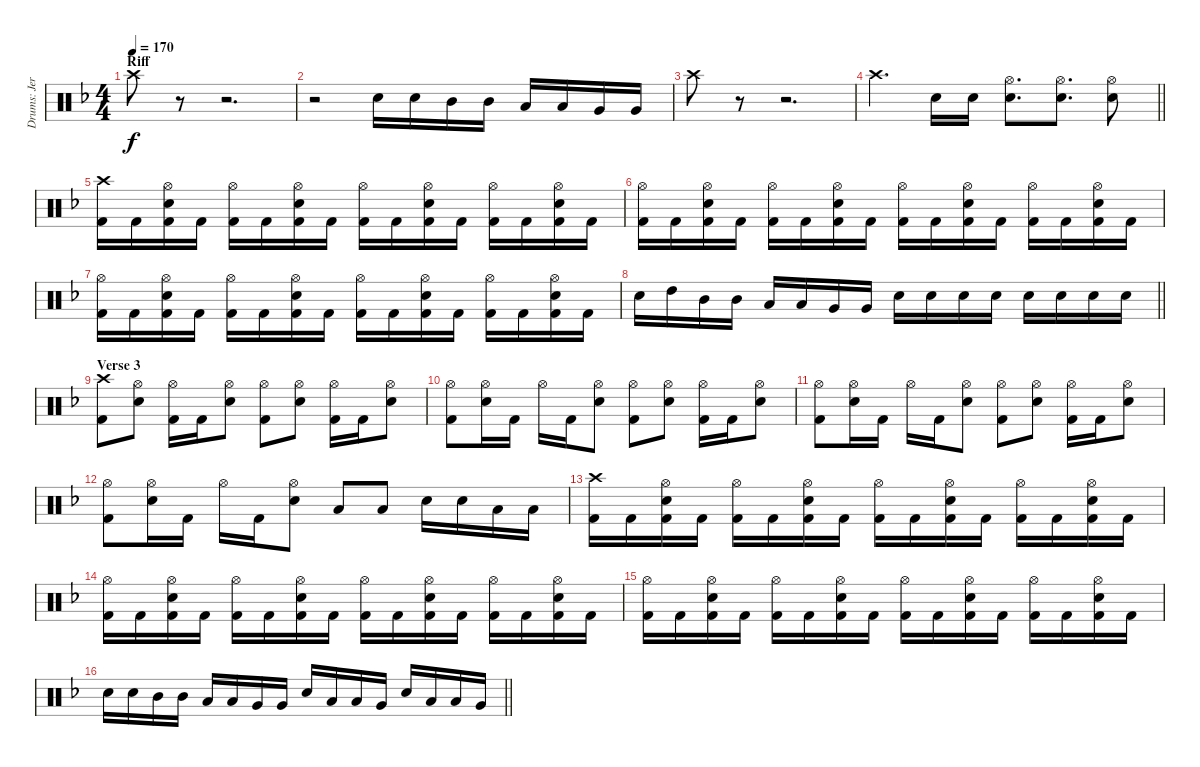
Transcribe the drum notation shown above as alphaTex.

\track ("Drums: Jere Luokkamäki" "Drums: Jer") {instrument percussion}
\staff {score}
\articulation defaults
\ts (4 4)
\section ("" "Riff")
\tempo 170
\clef neutral
\ks dminor "Crash high (hit)".8{dy f}
r.8 r.2{d} |
r.2 "Electric Snare (hit)".16 "Electric Snare (hit)".16 "Mid Tom (hit)".16 "Mid Tom (hit)".16 "Low Tom (hit)".16 "Low Tom (hit)".16 "Very Low Tom (hit)".16 "Very Low Tom (hit)".16 |
"Crash high (hit)".8 r.8 r.2{d} |
\barLineRight lightlight "Crash high (hit)".4{d} "Electric Snare (hit)".16 "Electric Snare (hit)".16
("Hi-Hat (open)" "Electric Snare (hit)").8{d} ("Hi-Hat (open)" "Electric Snare (hit)").8{d} ("Hi-Hat (open)" "Electric Snare (hit)").8 |
("Crash high (hit)" "Kick (hit) 2").16 "Kick (hit) 2".16 ("Hi-Hat (open)" "Electric Snare (hit)" "Kick (hit) 2").16 "Kick (hit) 2".16 ("Hi-Hat (open)" "Kick (hit) 2").16 "Kick (hit) 2".16 ("Hi-Hat (open)" "Electric Snare (hit)" "Kick (hit) 2").16 "Kick (hit) 2".16 ("Hi-Hat (open)" "Kick (hit) 2").16 "Kick (hit) 2".16 ("Hi-Hat (open)" "Electric Snare (hit)" "Kick (hit) 2").16 "Kick (hit) 2".16 ("Hi-Hat (open)" "Kick (hit) 2").16 "Kick (hit) 2".16 ("Hi-Hat (open)" "Electric Snare (hit)" "Kick (hit) 2").16 "Kick (hit) 2".16 |
("Hi-Hat (open)" "Kick (hit) 2").16 "Kick (hit) 2".16 ("Hi-Hat (open)" "Electric Snare (hit)" "Kick (hit) 2").16 "Kick (hit) 2".16 ("Hi-Hat (open)" "Kick (hit) 2").16 "Kick (hit) 2".16 ("Hi-Hat (open)" "Electric Snare (hit)" "Kick (hit) 2").16 "Kick (hit) 2".16 ("Hi-Hat (open)" "Kick (hit) 2").16 "Kick (hit) 2".16 ("Hi-Hat (open)" "Electric Snare (hit)" "Kick (hit) 2").16 "Kick (hit) 2".16 ("Hi-Hat (open)" "Kick (hit) 2").16 "Kick (hit) 2".16 ("Hi-Hat (open)" "Electric Snare (hit)" "Kick (hit) 2").16 "Kick (hit) 2".16 |
("Hi-Hat (open)" "Kick (hit) 2").16 "Kick (hit) 2".16 ("Hi-Hat (open)" "Electric Snare (hit)" "Kick (hit) 2").16 "Kick (hit) 2".16 ("Hi-Hat (open)" "Kick (hit) 2").16 "Kick (hit) 2".16 ("Hi-Hat (open)" "Electric Snare (hit)" "Kick (hit) 2").16 "Kick (hit) 2".16 ("Hi-Hat (open)" "Kick (hit) 2").16 "Kick (hit) 2".16 ("Hi-Hat (open)" "Electric Snare (hit)" "Kick (hit) 2").16 "Kick (hit) 2".16 ("Hi-Hat (open)" "Kick (hit) 2").16 "Kick (hit) 2".16 ("Hi-Hat (open)" "Electric Snare (hit)" "Kick (hit) 2").16 "Kick (hit) 2".16 |
\barLineRight lightlight "Electric Snare (hit)".16 "High Tom (hit)".16 "Mid Tom (hit)".16 "Mid Tom (hit)".16 "Low Tom (hit)".16 "Low Tom (hit)".16 "Very Low Tom (hit)".16 "Very Low Tom (hit)".16 "Electric Snare (hit)".16 "Electric Snare (hit)".16 "Electric Snare (hit)".16 "Electric Snare (hit)".16 "Electric Snare (hit)".16 "Electric Snare (hit)".16 "Electric Snare (hit)".16 "Electric Snare (hit)".16
|
\section ("" "Verse 3")
("Crash high (hit)" "Kick (hit) 2").8 ("Hi-Hat (open)" "Electric Snare (hit)").8 ("Hi-Hat (open)" "Kick (hit) 2").16 "Kick (hit) 2".16 ("Hi-Hat (open)" "Electric Snare (hit)").8 ("Hi-Hat (open)" "Kick (hit) 2").8 ("Hi-Hat (open)" "Electric Snare (hit)").8 ("Hi-Hat (open)" "Kick (hit) 2").16 "Kick (hit) 2".16 ("Hi-Hat (open)" "Electric Snare (hit)").8 |
("Hi-Hat (open)" "Kick (hit) 2").8 ("Hi-Hat (open)" "Electric Snare (hit)").16 "Kick (hit) 2".16 "Hi-Hat (open)".16 "Kick (hit) 2".16 ("Hi-Hat (open)" "Electric Snare (hit)").8 ("Hi-Hat (open)" "Kick (hit) 2").8 ("Hi-Hat (open)" "Electric Snare (hit)").8 ("Hi-Hat (open)" "Kick (hit) 2").16 "Kick (hit) 2".16 ("Hi-Hat (open)" "Electric Snare (hit)").8 |
("Hi-Hat (open)" "Kick (hit) 2").8 ("Hi-Hat (open)" "Electric Snare (hit)").16 "Kick (hit) 2".16 "Hi-Hat (open)".16 "Kick (hit) 2".16 ("Hi-Hat (open)" "Electric Snare (hit)").8 ("Hi-Hat (open)" "Kick (hit) 2").8 ("Hi-Hat (open)" "Electric Snare (hit)").8 ("Hi-Hat (open)" "Kick (hit) 2").16 "Kick (hit) 2".16 ("Hi-Hat (open)" "Electric Snare (hit)").8 |
("Hi-Hat (open)" "Kick (hit) 2").8 ("Hi-Hat (open)" "Electric Snare (hit)").16 "Kick (hit) 2".16 "Hi-Hat (open)".16 "Kick (hit) 2".16 ("Hi-Hat (open)" "Electric Snare (hit)").8 "Low Tom (hit)".8 "Low Tom (hit)".8 "Electric Snare (hit)".16 "Electric Snare (hit)".16 "Low Tom (hit)".16 "Low Tom (hit)".16 |
("Crash high (hit)" "Kick (hit) 2").16 "Kick (hit) 2".16 ("Hi-Hat (open)" "Electric Snare (hit)" "Kick (hit) 2").16 "Kick (hit) 2".16 ("Hi-Hat (open)" "Kick (hit) 2").16 "Kick (hit) 2".16 ("Hi-Hat (open)" "Electric Snare (hit)" "Kick (hit) 2").16 "Kick (hit) 2".16 ("Hi-Hat (open)" "Kick (hit) 2").16 "Kick (hit) 2".16 ("Hi-Hat (open)" "Electric Snare (hit)" "Kick (hit) 2").16 "Kick (hit) 2".16 ("Hi-Hat (open)" "Kick (hit) 2").16 "Kick (hit) 2".16 ("Hi-Hat (open)" "Electric Snare (hit)" "Kick (hit) 2").16 "Kick (hit) 2".16 |
("Hi-Hat (open)" "Kick (hit) 2").16 "Kick (hit) 2".16 ("Hi-Hat (open)" "Electric Snare (hit)" "Kick (hit) 2").16 "Kick (hit) 2".16 ("Hi-Hat (open)" "Kick (hit) 2").16 "Kick (hit) 2".16 ("Hi-Hat (open)" "Electric Snare (hit)" "Kick (hit) 2").16 "Kick (hit) 2".16 ("Hi-Hat (open)" "Kick (hit) 2").16 "Kick (hit) 2".16 ("Hi-Hat (open)" "Electric Snare (hit)" "Kick (hit) 2").16 "Kick (hit) 2".16 ("Hi-Hat (open)" "Kick (hit) 2").16 "Kick (hit) 2".16 ("Hi-Hat (open)" "Electric Snare (hit)" "Kick (hit) 2").16 "Kick (hit) 2".16 |
("Hi-Hat (open)" "Kick (hit) 2").16 "Kick (hit) 2".16 ("Hi-Hat (open)" "Electric Snare (hit)" "Kick (hit) 2").16 "Kick (hit) 2".16 ("Hi-Hat (open)" "Kick (hit) 2").16 "Kick (hit) 2".16 ("Hi-Hat (open)" "Electric Snare (hit)" "Kick (hit) 2").16 "Kick (hit) 2".16 ("Hi-Hat (open)" "Kick (hit) 2").16 "Kick (hit) 2".16 ("Hi-Hat (open)" "Electric Snare (hit)" "Kick (hit) 2").16 "Kick (hit) 2".16 ("Hi-Hat (open)" "Kick (hit) 2").16 "Kick (hit) 2".16 ("Hi-Hat (open)" "Electric Snare (hit)" "Kick (hit) 2").16 "Kick (hit) 2".16 |
\barLineRight lightlight "Electric Snare (hit)".16 "Electric Snare (hit)".16 "Mid Tom (hit)".16 "Mid Tom (hit)".16 "Low Tom (hit)".16 "Low Tom (hit)".16 "Very Low Tom (hit)".16 "Very Low Tom (hit)".16 "Electric Snare (hit)".16 "Low Tom (hit)".16 "Low Tom (hit)".16 "Very Low Tom (hit)".16 "Electric Snare (hit)".16 "Low Tom (hit)".16 "Low Tom (hit)".16 "Very Low Tom (hit)".16
